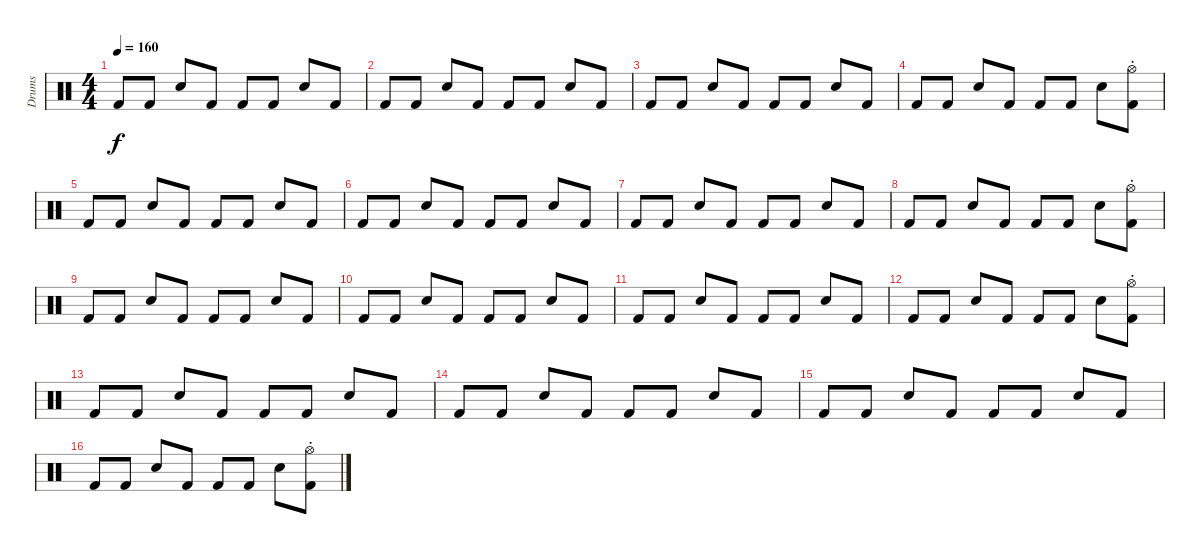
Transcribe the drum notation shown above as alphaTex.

\track ("Drums" "Drums") {instrument percussion}
\staff {score}
\articulation defaults
\ts (4 4)
\tempo 160
\clef neutral
\ks c "Kick (hit) 2".8{dy f} "Kick (hit) 2".8 "Snare (hit) 2".8 "Kick (hit) 2".8 "Kick (hit) 2".8 "Kick (hit) 2".8 "Snare (hit) 2".8 "Kick (hit) 2".8
|
"Kick (hit) 2".8 "Kick (hit) 2".8 "Snare (hit) 2".8 "Kick (hit) 2".8 "Kick (hit) 2".8 "Kick (hit) 2".8 "Snare (hit) 2".8 "Kick (hit) 2".8 |
"Kick (hit) 2".8 "Kick (hit) 2".8 "Snare (hit) 2".8 "Kick (hit) 2".8 "Kick (hit) 2".8 "Kick (hit) 2".8 "Snare (hit) 2".8 "Kick (hit) 2".8 |
"Kick (hit) 2".8 "Kick (hit) 2".8 "Snare (hit) 2".8 "Kick (hit) 2".8 "Kick (hit) 2".8 "Kick (hit) 2".8 "Snare (hit) 2".8 ("Hi-Hat (open)"{st} "Kick (hit) 2").8 |
"Kick (hit) 2".8 "Kick (hit) 2".8 "Snare (hit) 2".8 "Kick (hit) 2".8 "Kick (hit) 2".8 "Kick (hit) 2".8 "Snare (hit) 2".8 "Kick (hit) 2".8 |
"Kick (hit) 2".8 "Kick (hit) 2".8 "Snare (hit) 2".8 "Kick (hit) 2".8 "Kick (hit) 2".8 "Kick (hit) 2".8 "Snare (hit) 2".8 "Kick (hit) 2".8 |
"Kick (hit) 2".8 "Kick (hit) 2".8 "Snare (hit) 2".8 "Kick (hit) 2".8 "Kick (hit) 2".8 "Kick (hit) 2".8 "Snare (hit) 2".8 "Kick (hit) 2".8 |
"Kick (hit) 2".8 "Kick (hit) 2".8 "Snare (hit) 2".8 "Kick (hit) 2".8 "Kick (hit) 2".8 "Kick (hit) 2".8 "Snare (hit) 2".8 ("Hi-Hat (open)"{st} "Kick (hit) 2").8 |
"Kick (hit) 2".8 "Kick (hit) 2".8 "Snare (hit) 2".8 "Kick (hit) 2".8 "Kick (hit) 2".8 "Kick (hit) 2".8 "Snare (hit) 2".8 "Kick (hit) 2".8 |
"Kick (hit) 2".8 "Kick (hit) 2".8 "Snare (hit) 2".8 "Kick (hit) 2".8 "Kick (hit) 2".8 "Kick (hit) 2".8 "Snare (hit) 2".8 "Kick (hit) 2".8 |
"Kick (hit) 2".8 "Kick (hit) 2".8 "Snare (hit) 2".8 "Kick (hit) 2".8 "Kick (hit) 2".8 "Kick (hit) 2".8 "Snare (hit) 2".8 "Kick (hit) 2".8 |
"Kick (hit) 2".8 "Kick (hit) 2".8 "Snare (hit) 2".8 "Kick (hit) 2".8 "Kick (hit) 2".8 "Kick (hit) 2".8 "Snare (hit) 2".8 ("Hi-Hat (open)"{st} "Kick (hit) 2").8 |
"Kick (hit) 2".8 "Kick (hit) 2".8 "Snare (hit) 2".8 "Kick (hit) 2".8 "Kick (hit) 2".8 "Kick (hit) 2".8 "Snare (hit) 2".8 "Kick (hit) 2".8 |
"Kick (hit) 2".8 "Kick (hit) 2".8 "Snare (hit) 2".8 "Kick (hit) 2".8 "Kick (hit) 2".8 "Kick (hit) 2".8 "Snare (hit) 2".8 "Kick (hit) 2".8 |
"Kick (hit) 2".8 "Kick (hit) 2".8 "Snare (hit) 2".8 "Kick (hit) 2".8 "Kick (hit) 2".8 "Kick (hit) 2".8 "Snare (hit) 2".8 "Kick (hit) 2".8 |
"Kick (hit) 2".8 "Kick (hit) 2".8 "Snare (hit) 2".8 "Kick (hit) 2".8 "Kick (hit) 2".8 "Kick (hit) 2".8 "Snare (hit) 2".8 ("Hi-Hat (open)"{st} "Kick (hit) 2").8
